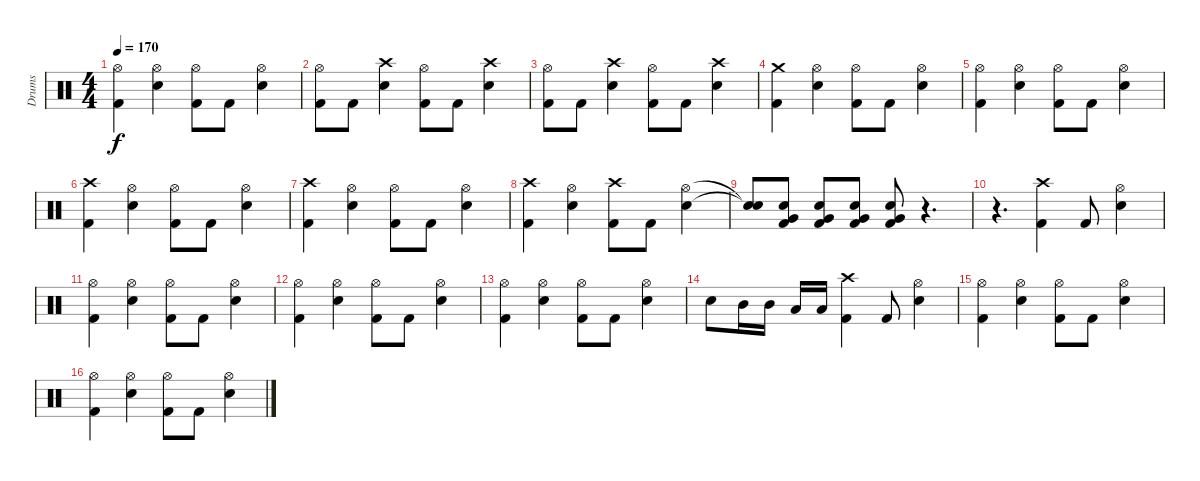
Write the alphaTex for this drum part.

\track ("Drums" "Drums") {instrument percussion}
\staff {score}
\articulation defaults
\ts (4 4)
\tempo 170
\clef neutral
\ks c
("Hi-Hat (open)" "Kick (hit) 2").4{dy f} ("Hi-Hat (open)" "Snare (hit) 2").4 ("Hi-Hat (open)" "Kick (hit) 2").8 "Kick (hit) 2".8 ("Hi-Hat (open)" "Snare (hit) 2").4 |
("Hi-Hat (open)" "Kick (hit) 2").8 "Kick (hit) 2".8 ("Crash high (hit)" "Snare (hit) 2").4 ("Hi-Hat (open)" "Kick (hit) 2").8 "Kick (hit) 2".8 ("Crash high (hit)" "Snare (hit) 2").4 |
("Hi-Hat (open)" "Kick (hit) 2").8 "Kick (hit) 2".8 ("Crash high (hit)" "Snare (hit) 2").4 ("Hi-Hat (open)" "Kick (hit) 2").8 "Kick (hit) 2".8 ("Crash high (hit)" "Snare (hit) 2").4 |
("Crash medium (hit)" "Kick (hit) 2").4 ("Hi-Hat (open)" "Snare (hit) 2").4 ("Hi-Hat (open)" "Kick (hit) 2").8 "Kick (hit) 2".8 ("Hi-Hat (open)" "Snare (hit) 2").4 |
("Hi-Hat (open)" "Kick (hit) 2").4 ("Hi-Hat (open)" "Snare (hit) 2").4 ("Hi-Hat (open)" "Kick (hit) 2").8 "Kick (hit) 2".8 ("Hi-Hat (open)" "Snare (hit) 2").4 |
("Crash high (hit)" "Kick (hit) 2").4 ("Hi-Hat (open)" "Snare (hit) 2").4 ("Hi-Hat (open)" "Kick (hit) 2").8 "Kick (hit) 2".8 ("Hi-Hat (open)" "Snare (hit) 2").4 |
("Crash high (hit)" "Kick (hit) 2").4 ("Hi-Hat (open)" "Snare (hit) 2").4 ("Hi-Hat (open)" "Kick (hit) 2").8 "Kick (hit) 2".8 ("Hi-Hat (open)" "Snare (hit) 2").4 |
("Crash high (hit)" "Kick (hit) 2").4 ("Hi-Hat (open)" "Snare (hit) 2").4 ("Crash high (hit)" "Kick (hit) 2").8 "Kick (hit) 2".8 ("Hi-Hat (open)" "Snare (hit) 2").4 |
("Snare (hit)"{t} "Snare (hit)"{t}).8 ("Snare (hit) 2" "Very Low Tom (hit)" "Kick (hit) 2").8 ("Snare (hit) 2" "Very Low Tom (hit)" "Kick (hit) 2").8 ("Snare (hit) 2" "Very Low Tom (hit)" "Kick (hit) 2").8 ("Snare (hit) 2" "Very Low Tom (hit)" "Kick (hit) 2").8 r.4{d} |
r.4{d} ("Crash high (hit)" "Kick (hit) 2").4 "Kick (hit) 2".8 ("Hi-Hat (open)" "Snare (hit) 2").4 |
("Hi-Hat (open)" "Kick (hit) 2").4 ("Hi-Hat (open)" "Snare (hit) 2").4 ("Hi-Hat (open)" "Kick (hit) 2").8 "Kick (hit) 2".8 ("Hi-Hat (open)" "Snare (hit) 2").4 |
("Hi-Hat (open)" "Kick (hit) 2").4 ("Hi-Hat (open)" "Snare (hit) 2").4 ("Hi-Hat (open)" "Kick (hit) 2").8 "Kick (hit) 2".8 ("Hi-Hat (open)" "Snare (hit) 2").4 |
("Hi-Hat (open)" "Kick (hit) 2").4 ("Hi-Hat (open)" "Snare (hit) 2").4 ("Hi-Hat (open)" "Kick (hit) 2").8 "Kick (hit) 2".8 ("Hi-Hat (open)" "Snare (hit) 2").4 |
"Snare (hit) 2".8 "Mid Tom (hit)".16 "Mid Tom (hit)".16 "Low Tom (hit)".16 "Low Tom (hit)".16 ("Crash high (hit)" "Kick (hit) 2").4 "Kick (hit) 2".8 ("Hi-Hat (open)" "Snare (hit) 2").4 |
("Hi-Hat (open)" "Kick (hit) 2").4 ("Hi-Hat (open)" "Snare (hit) 2").4 ("Hi-Hat (open)" "Kick (hit) 2").8 "Kick (hit) 2".8 ("Hi-Hat (open)" "Snare (hit) 2").4 |
("Hi-Hat (open)" "Kick (hit) 2").4 ("Hi-Hat (open)" "Snare (hit) 2").4 ("Hi-Hat (open)" "Kick (hit) 2").8 "Kick (hit) 2".8 ("Hi-Hat (open)" "Snare (hit) 2").4
